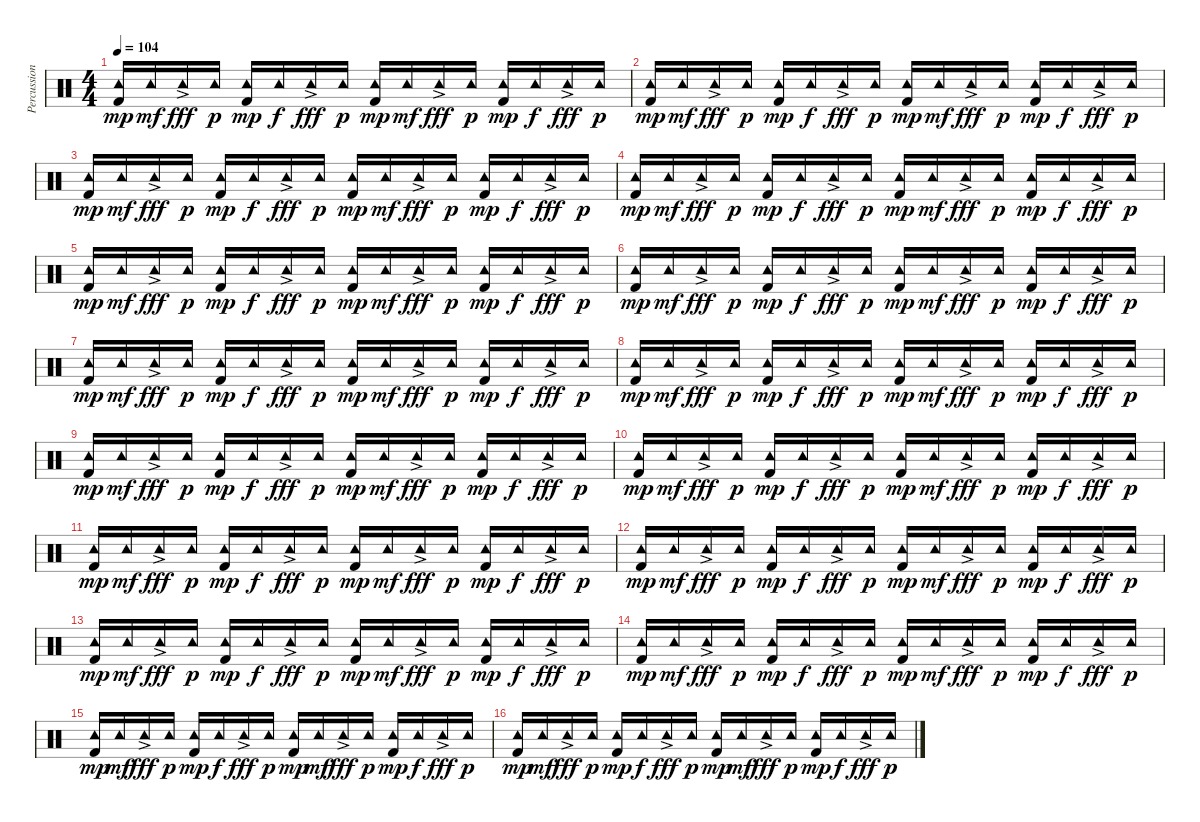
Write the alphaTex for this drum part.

\track ("Percussion" "Percussion") {instrument percussion}
\staff {score}
\articulation defaults
\ts (4 4)
\tempo 104
\clef neutral
\ks c
("Kick (hit) 2" "Tambourine (hit)").16{dy mp} "Tambourine (hit)".16{dy mf} "Tambourine (hit)"{ac}.16{dy fff} "Tambourine (hit)".16{dy p} ("Kick (hit) 2" "Tambourine (hit)").16{dy mp} "Tambourine (hit)".16{dy f} "Tambourine (hit)"{ac}.16{dy fff} "Tambourine (hit)".16{dy p} ("Kick (hit) 2" "Tambourine (hit)").16{dy mp} "Tambourine (hit)".16{dy mf} "Tambourine (hit)"{ac}.16{dy fff} "Tambourine (hit)".16{dy p} ("Kick (hit) 2" "Tambourine (hit)").16{dy mp} "Tambourine (hit)".16{dy f} "Tambourine (hit)"{ac}.16{dy fff} "Tambourine (hit)".16{dy p} |
("Kick (hit) 2" "Tambourine (hit)").16{dy mp} "Tambourine (hit)".16{dy mf} "Tambourine (hit)"{ac}.16{dy fff} "Tambourine (hit)".16{dy p} ("Kick (hit) 2" "Tambourine (hit)").16{dy mp} "Tambourine (hit)".16{dy f} "Tambourine (hit)"{ac}.16{dy fff} "Tambourine (hit)".16{dy p} ("Kick (hit) 2" "Tambourine (hit)").16{dy mp} "Tambourine (hit)".16{dy mf} "Tambourine (hit)"{ac}.16{dy fff} "Tambourine (hit)".16{dy p} ("Kick (hit) 2" "Tambourine (hit)").16{dy mp} "Tambourine (hit)".16{dy f} "Tambourine (hit)"{ac}.16{dy fff} "Tambourine (hit)".16{dy p} |
("Kick (hit) 2" "Tambourine (hit)").16{dy mp} "Tambourine (hit)".16{dy mf} "Tambourine (hit)"{ac}.16{dy fff} "Tambourine (hit)".16{dy p} ("Kick (hit) 2" "Tambourine (hit)").16{dy mp} "Tambourine (hit)".16{dy f} "Tambourine (hit)"{ac}.16{dy fff} "Tambourine (hit)".16{dy p} ("Kick (hit) 2" "Tambourine (hit)").16{dy mp} "Tambourine (hit)".16{dy mf} "Tambourine (hit)"{ac}.16{dy fff} "Tambourine (hit)".16{dy p} ("Kick (hit) 2" "Tambourine (hit)").16{dy mp} "Tambourine (hit)".16{dy f} "Tambourine (hit)"{ac}.16{dy fff} "Tambourine (hit)".16{dy p} |
("Kick (hit) 2" "Tambourine (hit)").16{dy mp} "Tambourine (hit)".16{dy mf} "Tambourine (hit)"{ac}.16{dy fff} "Tambourine (hit)".16{dy p} ("Kick (hit) 2" "Tambourine (hit)").16{dy mp} "Tambourine (hit)".16{dy f} "Tambourine (hit)"{ac}.16{dy fff} "Tambourine (hit)".16{dy p} ("Kick (hit) 2" "Tambourine (hit)").16{dy mp} "Tambourine (hit)".16{dy mf} "Tambourine (hit)"{ac}.16{dy fff} "Tambourine (hit)".16{dy p} ("Kick (hit) 2" "Tambourine (hit)").16{dy mp} "Tambourine (hit)".16{dy f} "Tambourine (hit)"{ac}.16{dy fff} "Tambourine (hit)".16{dy p} |
("Kick (hit) 2" "Tambourine (hit)").16{dy mp} "Tambourine (hit)".16{dy mf} "Tambourine (hit)"{ac}.16{dy fff} "Tambourine (hit)".16{dy p} ("Kick (hit) 2" "Tambourine (hit)").16{dy mp} "Tambourine (hit)".16{dy f} "Tambourine (hit)"{ac}.16{dy fff} "Tambourine (hit)".16{dy p} ("Kick (hit) 2" "Tambourine (hit)").16{dy mp} "Tambourine (hit)".16{dy mf} "Tambourine (hit)"{ac}.16{dy fff} "Tambourine (hit)".16{dy p} ("Kick (hit) 2" "Tambourine (hit)").16{dy mp} "Tambourine (hit)".16{dy f} "Tambourine (hit)"{ac}.16{dy fff} "Tambourine (hit)".16{dy p} |
("Kick (hit) 2" "Tambourine (hit)").16{dy mp} "Tambourine (hit)".16{dy mf} "Tambourine (hit)"{ac}.16{dy fff} "Tambourine (hit)".16{dy p} ("Kick (hit) 2" "Tambourine (hit)").16{dy mp} "Tambourine (hit)".16{dy f} "Tambourine (hit)"{ac}.16{dy fff} "Tambourine (hit)".16{dy p} ("Kick (hit) 2" "Tambourine (hit)").16{dy mp} "Tambourine (hit)".16{dy mf} "Tambourine (hit)"{ac}.16{dy fff} "Tambourine (hit)".16{dy p} ("Kick (hit) 2" "Tambourine (hit)").16{dy mp} "Tambourine (hit)".16{dy f} "Tambourine (hit)"{ac}.16{dy fff} "Tambourine (hit)".16{dy p} |
("Kick (hit) 2" "Tambourine (hit)").16{dy mp} "Tambourine (hit)".16{dy mf} "Tambourine (hit)"{ac}.16{dy fff} "Tambourine (hit)".16{dy p} ("Kick (hit) 2" "Tambourine (hit)").16{dy mp} "Tambourine (hit)".16{dy f} "Tambourine (hit)"{ac}.16{dy fff} "Tambourine (hit)".16{dy p} ("Kick (hit) 2" "Tambourine (hit)").16{dy mp} "Tambourine (hit)".16{dy mf} "Tambourine (hit)"{ac}.16{dy fff} "Tambourine (hit)".16{dy p} ("Kick (hit) 2" "Tambourine (hit)").16{dy mp} "Tambourine (hit)".16{dy f} "Tambourine (hit)"{ac}.16{dy fff} "Tambourine (hit)".16{dy p} |
("Kick (hit) 2" "Tambourine (hit)").16{dy mp} "Tambourine (hit)".16{dy mf} "Tambourine (hit)"{ac}.16{dy fff} "Tambourine (hit)".16{dy p} ("Kick (hit) 2" "Tambourine (hit)").16{dy mp} "Tambourine (hit)".16{dy f} "Tambourine (hit)"{ac}.16{dy fff} "Tambourine (hit)".16{dy p} ("Kick (hit) 2" "Tambourine (hit)").16{dy mp} "Tambourine (hit)".16{dy mf} "Tambourine (hit)"{ac}.16{dy fff} "Tambourine (hit)".16{dy p} ("Kick (hit) 2" "Tambourine (hit)").16{dy mp} "Tambourine (hit)".16{dy f} "Tambourine (hit)"{ac}.16{dy fff} "Tambourine (hit)".16{dy p} |
("Kick (hit) 2" "Tambourine (hit)").16{dy mp} "Tambourine (hit)".16{dy mf} "Tambourine (hit)"{ac}.16{dy fff} "Tambourine (hit)".16{dy p} ("Kick (hit) 2" "Tambourine (hit)").16{dy mp} "Tambourine (hit)".16{dy f} "Tambourine (hit)"{ac}.16{dy fff} "Tambourine (hit)".16{dy p} ("Kick (hit) 2" "Tambourine (hit)").16{dy mp} "Tambourine (hit)".16{dy mf} "Tambourine (hit)"{ac}.16{dy fff} "Tambourine (hit)".16{dy p} ("Kick (hit) 2" "Tambourine (hit)").16{dy mp} "Tambourine (hit)".16{dy f} "Tambourine (hit)"{ac}.16{dy fff} "Tambourine (hit)".16{dy p} |
("Kick (hit) 2" "Tambourine (hit)").16{dy mp} "Tambourine (hit)".16{dy mf} "Tambourine (hit)"{ac}.16{dy fff} "Tambourine (hit)".16{dy p} ("Kick (hit) 2" "Tambourine (hit)").16{dy mp} "Tambourine (hit)".16{dy f} "Tambourine (hit)"{ac}.16{dy fff} "Tambourine (hit)".16{dy p} ("Kick (hit) 2" "Tambourine (hit)").16{dy mp} "Tambourine (hit)".16{dy mf} "Tambourine (hit)"{ac}.16{dy fff} "Tambourine (hit)".16{dy p} ("Kick (hit) 2" "Tambourine (hit)").16{dy mp} "Tambourine (hit)".16{dy f} "Tambourine (hit)"{ac}.16{dy fff} "Tambourine (hit)".16{dy p} |
("Kick (hit) 2" "Tambourine (hit)").16{dy mp} "Tambourine (hit)".16{dy mf} "Tambourine (hit)"{ac}.16{dy fff} "Tambourine (hit)".16{dy p} ("Kick (hit) 2" "Tambourine (hit)").16{dy mp} "Tambourine (hit)".16{dy f} "Tambourine (hit)"{ac}.16{dy fff} "Tambourine (hit)".16{dy p} ("Kick (hit) 2" "Tambourine (hit)").16{dy mp} "Tambourine (hit)".16{dy mf} "Tambourine (hit)"{ac}.16{dy fff} "Tambourine (hit)".16{dy p} ("Kick (hit) 2" "Tambourine (hit)").16{dy mp} "Tambourine (hit)".16{dy f} "Tambourine (hit)"{ac}.16{dy fff} "Tambourine (hit)".16{dy p} |
("Kick (hit) 2" "Tambourine (hit)").16{dy mp} "Tambourine (hit)".16{dy mf} "Tambourine (hit)"{ac}.16{dy fff} "Tambourine (hit)".16{dy p} ("Kick (hit) 2" "Tambourine (hit)").16{dy mp} "Tambourine (hit)".16{dy f} "Tambourine (hit)"{ac}.16{dy fff} "Tambourine (hit)".16{dy p} ("Kick (hit) 2" "Tambourine (hit)").16{dy mp} "Tambourine (hit)".16{dy mf} "Tambourine (hit)"{ac}.16{dy fff} "Tambourine (hit)".16{dy p} ("Kick (hit) 2" "Tambourine (hit)").16{dy mp} "Tambourine (hit)".16{dy f} "Tambourine (hit)"{ac}.16{dy fff} "Tambourine (hit)".16{dy p} |
("Kick (hit) 2" "Tambourine (hit)").16{dy mp} "Tambourine (hit)".16{dy mf} "Tambourine (hit)"{ac}.16{dy fff} "Tambourine (hit)".16{dy p} ("Kick (hit) 2" "Tambourine (hit)").16{dy mp} "Tambourine (hit)".16{dy f} "Tambourine (hit)"{ac}.16{dy fff} "Tambourine (hit)".16{dy p} ("Kick (hit) 2" "Tambourine (hit)").16{dy mp} "Tambourine (hit)".16{dy mf} "Tambourine (hit)"{ac}.16{dy fff} "Tambourine (hit)".16{dy p} ("Kick (hit) 2" "Tambourine (hit)").16{dy mp} "Tambourine (hit)".16{dy f} "Tambourine (hit)"{ac}.16{dy fff} "Tambourine (hit)".16{dy p} |
("Kick (hit) 2" "Tambourine (hit)").16{dy mp} "Tambourine (hit)".16{dy mf} "Tambourine (hit)"{ac}.16{dy fff} "Tambourine (hit)".16{dy p} ("Kick (hit) 2" "Tambourine (hit)").16{dy mp} "Tambourine (hit)".16{dy f} "Tambourine (hit)"{ac}.16{dy fff} "Tambourine (hit)".16{dy p} ("Kick (hit) 2" "Tambourine (hit)").16{dy mp} "Tambourine (hit)".16{dy mf} "Tambourine (hit)"{ac}.16{dy fff} "Tambourine (hit)".16{dy p} ("Kick (hit) 2" "Tambourine (hit)").16{dy mp} "Tambourine (hit)".16{dy f} "Tambourine (hit)"{ac}.16{dy fff} "Tambourine (hit)".16{dy p} |
("Kick (hit) 2" "Tambourine (hit)").16{dy mp} "Tambourine (hit)".16{dy mf} "Tambourine (hit)"{ac}.16{dy fff} "Tambourine (hit)".16{dy p} ("Kick (hit) 2" "Tambourine (hit)").16{dy mp} "Tambourine (hit)".16{dy f} "Tambourine (hit)"{ac}.16{dy fff} "Tambourine (hit)".16{dy p} ("Kick (hit) 2" "Tambourine (hit)").16{dy mp} "Tambourine (hit)".16{dy mf} "Tambourine (hit)"{ac}.16{dy fff} "Tambourine (hit)".16{dy p} ("Kick (hit) 2" "Tambourine (hit)").16{dy mp} "Tambourine (hit)".16{dy f} "Tambourine (hit)"{ac}.16{dy fff} "Tambourine (hit)".16{dy p} |
("Kick (hit) 2" "Tambourine (hit)").16{dy mp} "Tambourine (hit)".16{dy mf} "Tambourine (hit)"{ac}.16{dy fff} "Tambourine (hit)".16{dy p} ("Kick (hit) 2" "Tambourine (hit)").16{dy mp} "Tambourine (hit)".16{dy f} "Tambourine (hit)"{ac}.16{dy fff} "Tambourine (hit)".16{dy p} ("Kick (hit) 2" "Tambourine (hit)").16{dy mp} "Tambourine (hit)".16{dy mf} "Tambourine (hit)"{ac}.16{dy fff} "Tambourine (hit)".16{dy p} ("Kick (hit) 2" "Tambourine (hit)").16{dy mp} "Tambourine (hit)".16{dy f} "Tambourine (hit)"{ac}.16{dy fff} "Tambourine (hit)".16{dy p}
